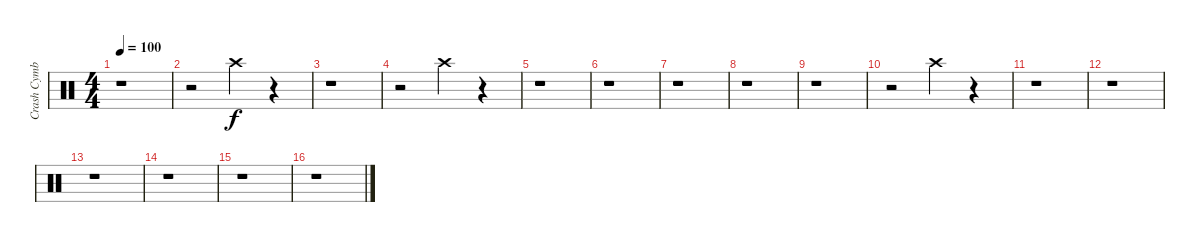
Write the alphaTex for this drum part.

\track ("Crash Cymbal" "Crash Cymb") {instrument percussion}
\staff {score}
\articulation defaults
\ts (4 4)
\tempo 100
\clef neutral
\ks c
r.1{dy f} |
r.2 "Crash high (hit)".4 r.4 |
r.1 |
r.2 "Crash high (hit)".4 r.4 |
r.1 |
r.1 |
r.1 |
r.1 |
r.1 |
r.2 "Crash high (hit)".4 r.4 |
r.1 |
r.1 |
r.1 |
r.1 |
r.1 |
r.1
